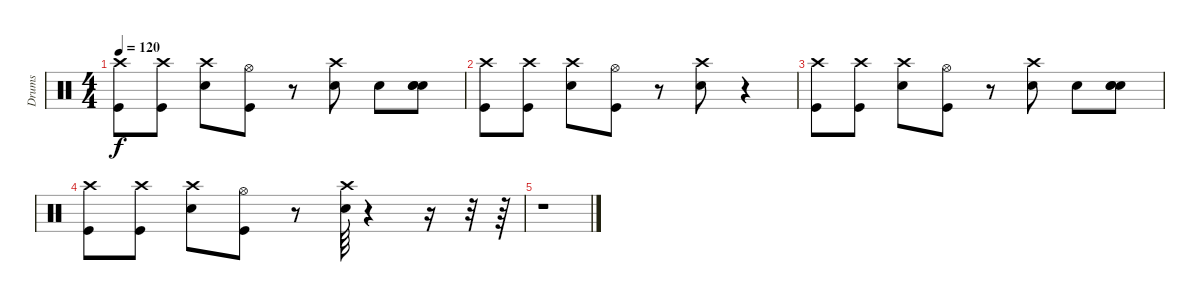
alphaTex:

\track ("Drums" "Drums") {instrument percussion}
\staff {score}
\articulation defaults
\ts (4 4)
\tempo 120
\clef neutral
\ks c
("Kick (hit)" "Crash high (hit)").8{dy f} ("Crash high (hit)" "Kick (hit)").8 ("Crash high (hit)" "Electric Snare (hit)").8 ("Kick (hit)" "Hi-Hat (open)").8 r.8 ("Crash high (hit)" "Electric Snare (hit)").8 "Electric Snare (hit)".8 ("Electric Snare (hit)" "Electric Snare (hit)" "Electric Snare (hit)").8 |
("Kick (hit)" "Crash high (hit)").8 ("Crash high (hit)" "Kick (hit)").8 ("Crash high (hit)" "Electric Snare (hit)").8 ("Kick (hit)" "Hi-Hat (open)").8 r.8 ("Crash high (hit)" "Electric Snare (hit)").8 r.4 |
("Kick (hit)" "Crash high (hit)").8 ("Crash high (hit)" "Kick (hit)").8 ("Crash high (hit)" "Electric Snare (hit)").8 ("Kick (hit)" "Hi-Hat (open)").8 r.8 ("Crash high (hit)" "Electric Snare (hit)").8 "Electric Snare (hit)".8 ("Electric Snare (hit)" "Electric Snare (hit)" "Electric Snare (hit)").8 |
("Kick (hit)" "Crash high (hit)").8 ("Crash high (hit)" "Kick (hit)").8 ("Crash high (hit)" "Electric Snare (hit)").8 ("Kick (hit)" "Hi-Hat (open)").8 r.8 ("Crash high (hit)" "Electric Snare (hit)").64 r.4 r.16 r.32 r.64 |
r.1
